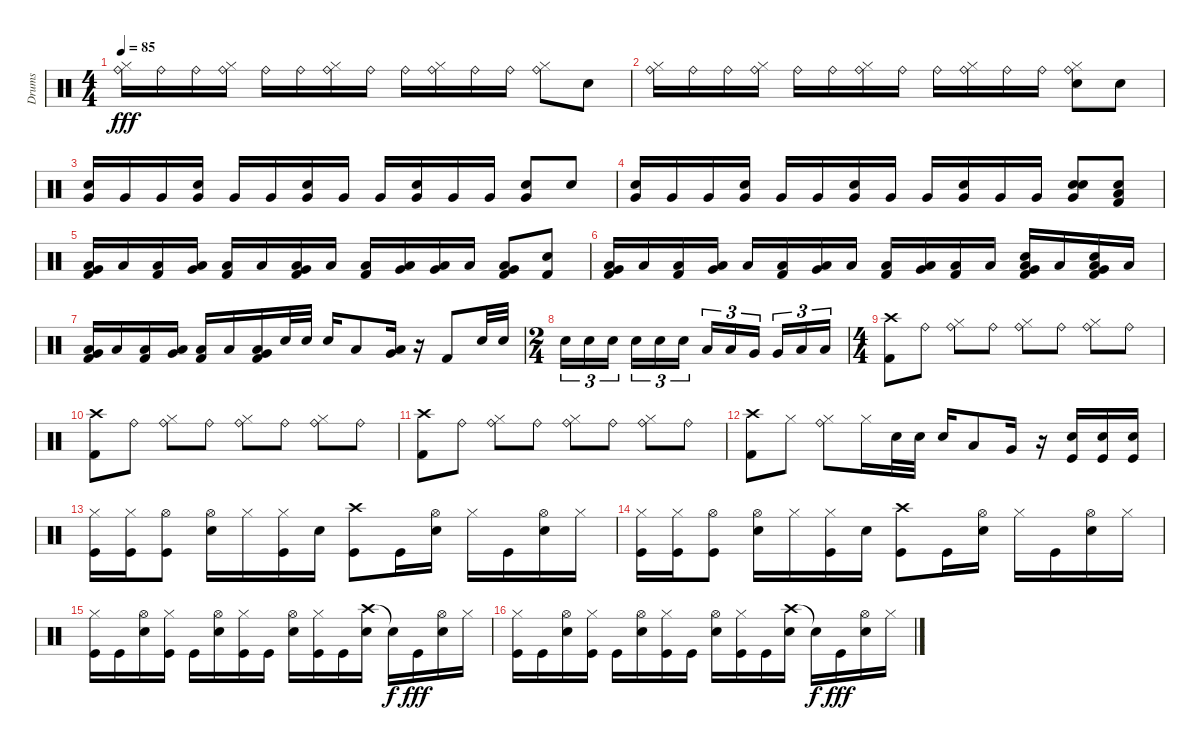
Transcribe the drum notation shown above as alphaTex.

\track ("Drums" "Drums") {instrument percussion}
\staff {score}
\articulation defaults
\ts (4 4)
\tempo 85
\clef neutral
\ks c
("Ride (bell)" "Hi-Hat (closed)").16{dy fff} "Ride (bell)".16 "Ride (bell)".16 ("Ride (bell)" "Hi-Hat (closed)").16 "Ride (bell)".16 "Ride (bell)".16 ("Ride (bell)" "Hi-Hat (closed)").16 "Ride (bell)".16 "Ride (bell)".16 ("Ride (bell)" "Hi-Hat (closed)").16 "Ride (bell)".16 "Ride (bell)".16 ("Ride (bell)" "Hi-Hat (closed)").8 "Hand Clap (hit)".8 |
("Ride (bell)" "Hi-Hat (closed)").16 "Ride (bell)".16 "Ride (bell)".16 ("Ride (bell)" "Hi-Hat (closed)").16 "Ride (bell)".16 "Ride (bell)".16 ("Ride (bell)" "Hi-Hat (closed)").16 "Ride (bell)".16 "Ride (bell)".16 ("Ride (bell)" "Hi-Hat (closed)").16 "Ride (bell)".16 "Ride (bell)".16 ("Ride (bell)" "Hi-Hat (closed)" "Hand Clap (hit)").8 "Hand Clap (hit)".8 |
("Very Low Tom (hit)" "Snare (hit) 2").16 "Very Low Tom (hit)".16 "Very Low Tom (hit)".16 ("Very Low Tom (hit)" "Snare (hit) 2").16 "Very Low Tom (hit)".16 "Very Low Tom (hit)".16 ("Very Low Tom (hit)" "Snare (hit) 2").16 "Very Low Tom (hit)".16 "Very Low Tom (hit)".16 ("Very Low Tom (hit)" "Snare (hit) 2").16 "Very Low Tom (hit)".16 "Very Low Tom (hit)".16 ("Very Low Tom (hit)" "Snare (hit) 2").8 "Hand Clap (hit)".8 |
("Very Low Tom (hit)" "Snare (hit) 2").16 "Very Low Tom (hit)".16 "Very Low Tom (hit)".16 ("Very Low Tom (hit)" "Snare (hit) 2").16 "Very Low Tom (hit)".16 "Very Low Tom (hit)".16 ("Very Low Tom (hit)" "Snare (hit) 2").16 "Very Low Tom (hit)".16 "Very Low Tom (hit)".16 ("Very Low Tom (hit)" "Snare (hit) 2").16 "Very Low Tom (hit)".16 "Very Low Tom (hit)".16 ("Hand Clap (hit)" "Very Low Tom (hit)" "Snare (hit) 2").8 ("Hand Clap (hit)" "Low Floor Tom (hit)" "Kick (hit) 2").8 |
("Very Low Tom (hit)" "Low Floor Tom (hit)" "Kick (hit) 2").16 "Low Floor Tom (hit)".16 ("Low Floor Tom (hit)" "Kick (hit) 2").16 ("Very Low Tom (hit)" "Low Floor Tom (hit)").16 ("Low Floor Tom (hit)" "Kick (hit) 2").16 "Low Floor Tom (hit)".16 ("Very Low Tom (hit)" "Low Floor Tom (hit)" "Kick (hit) 2").16 "Low Floor Tom (hit)".16 ("Low Floor Tom (hit)" "Kick (hit) 2").16 ("Very Low Tom (hit)" "Low Floor Tom (hit)").16 ("Very Low Tom (hit)" "Low Floor Tom (hit)").16 "Low Floor Tom (hit)".16 ("Very Low Tom (hit)" "Low Floor Tom (hit)" "Kick (hit) 2").8 ("Hand Clap (hit)" "Kick (hit) 2").8 |
("Very Low Tom (hit)" "Low Floor Tom (hit)" "Kick (hit) 2").16 "Low Floor Tom (hit)".16 ("Low Floor Tom (hit)" "Kick (hit) 2").16 ("Very Low Tom (hit)" "Low Floor Tom (hit)").16 "Low Floor Tom (hit)".16 ("Low Floor Tom (hit)" "Kick (hit) 2").16 ("Very Low Tom (hit)" "Low Floor Tom (hit)").16 "Low Floor Tom (hit)".16 ("Low Floor Tom (hit)" "Kick (hit) 2").16 ("Very Low Tom (hit)" "Low Floor Tom (hit)").16 ("Low Floor Tom (hit)" "Kick (hit) 2").16 "Low Floor Tom (hit)".16 ("Hand Clap (hit)" "Very Low Tom (hit)" "Low Floor Tom (hit)" "Kick (hit) 2").16 "Low Floor Tom (hit)".16 ("Hand Clap (hit)" "Very Low Tom (hit)" "Low Floor Tom (hit)" "Kick (hit) 2").16 "Low Floor Tom (hit)".16 |
("Very Low Tom (hit)" "Low Floor Tom (hit)" "Kick (hit) 2").16 "Low Floor Tom (hit)".16 ("Low Floor Tom (hit)" "Kick (hit) 2").16 ("Very Low Tom (hit)" "Low Floor Tom (hit)").16 ("Low Floor Tom (hit)" "Kick (hit) 2").16 "Low Floor Tom (hit)".16 ("Very Low Tom (hit)" "Low Floor Tom (hit)" "Kick (hit) 2").16 "Snare (hit) 2".32 "Snare (hit) 2".32 "Snare (hit) 2".16 "Low Tom (hit)".8 ("Very Low Tom (hit)" "Low Floor Tom (hit)").16 r.16 "Kick (hit) 2".8 "Snare (hit) 2".32 "Snare (hit) 2".32 |
\ts (2 4)
"Snare (hit) 2".16{tu (3 2)} "Snare (hit) 2".16{tu (3 2)} "Snare (hit) 2".16{tu (3 2)} "Snare (hit) 2".16{tu (3 2)} "Snare (hit) 2".16{tu (3 2)} "Snare (hit) 2".16{tu (3 2)} "Low Tom (hit)".16{tu (3 2)} "Low Tom (hit)".16{tu (3 2)} "Very Low Tom (hit)".16{tu (3 2)} "Very Low Tom (hit)".16{tu (3 2)} "Low Floor Tom (hit)".16{tu (3 2)} "Low Floor Tom (hit)".16{tu (3 2)} |
\ts (4 4)
("Crash high (hit)" "Kick (hit) 2").8 "Ride (bell)".8 ("Hi-Hat (closed)" "Ride (bell)").8 "Ride (bell)".8 ("Hi-Hat (closed)" "Ride (bell)").8 "Ride (bell)".8 ("Hi-Hat (closed)" "Ride (bell)").8 "Ride (bell)".8 |
("Crash high (hit)" "Kick (hit) 2").8 "Ride (bell)".8 ("Hi-Hat (closed)" "Ride (bell)").8 "Ride (bell)".8 ("Hi-Hat (closed)" "Ride (bell)").8 "Ride (bell)".8 ("Hi-Hat (closed)" "Ride (bell)").8 "Ride (bell)".8 |
("Crash high (hit)" "Kick (hit) 2").8 "Ride (bell)".8 ("Hi-Hat (closed)" "Ride (bell)").8 "Ride (bell)".8 ("Hi-Hat (closed)" "Ride (bell)").8 "Ride (bell)".8 ("Hi-Hat (closed)" "Ride (bell)").8 "Ride (bell)".8 |
("Crash high (hit)" "Kick (hit) 2").8 "Hi-Hat (closed)".8 ("Hi-Hat (closed)" "Ride (bell)").8 "Hi-Hat (closed)".16 "Snare (hit) 2".32 "Snare (hit) 2".32 "Snare (hit) 2".16 "Low Tom (hit)".8 "Very Low Tom (hit)".16 r.16 ("Snare (hit) 2" "Kick (hit)").16 ("Snare (hit) 2" "Kick (hit)").16 ("Snare (hit) 2" "Kick (hit)").16 |
("Hi-Hat (closed)" "Kick (hit)").16 ("Hi-Hat (closed)" "Kick (hit)").16 ("Hi-Hat (open)" "Kick (hit)").8 ("Hi-Hat (open)" "Snare (hit) 2").16 "Hi-Hat (closed)".16 ("Hi-Hat (closed)" "Kick (hit)").16 "Snare (hit) 2".16 ("Crash high (hit)" "Kick (hit)").8 "Kick (hit)".16 ("Hi-Hat (open)" "Snare (hit) 2").16 "Hi-Hat (closed)".16 "Kick (hit)".16 ("Hi-Hat (open)" "Snare (hit) 2").16 "Hi-Hat (closed)".16 |
("Hi-Hat (closed)" "Kick (hit)").16 ("Hi-Hat (closed)" "Kick (hit)").16 ("Hi-Hat (open)" "Kick (hit)").8 ("Hi-Hat (open)" "Snare (hit) 2").16 "Hi-Hat (closed)".16 ("Hi-Hat (closed)" "Kick (hit)").16 "Snare (hit) 2".16 ("Crash high (hit)" "Kick (hit)").8 "Kick (hit)".16 ("Hi-Hat (open)" "Snare (hit) 2").16 "Hi-Hat (closed)".16 "Kick (hit)".16 ("Hi-Hat (open)" "Snare (hit) 2").16 "Hi-Hat (closed)".16 |
("Hi-Hat (closed)" "Kick (hit)").16 "Kick (hit)".16 ("Hi-Hat (open)" "Snare (hit) 2").16 ("Hi-Hat (closed)" "Kick (hit)").16 "Kick (hit)".16 ("Hi-Hat (open)" "Snare (hit) 2").16 ("Hi-Hat (closed)" "Kick (hit)").16 "Kick (hit)".16 ("Hi-Hat (open)" "Snare (hit) 2").16 ("Hi-Hat (closed)" "Kick (hit)").16 "Kick (hit)".16 ("Crash high (hit)" "Snare (hit) 2").16 "Snare (hit)"{t}.16{dy f} "Kick (hit)".16{dy fff} ("Hi-Hat (open)" "Snare (hit) 2").16 "Hi-Hat (closed)".16 |
("Hi-Hat (closed)" "Kick (hit)").16 "Kick (hit)".16 ("Hi-Hat (open)" "Snare (hit) 2").16 ("Hi-Hat (closed)" "Kick (hit)").16 "Kick (hit)".16 ("Hi-Hat (open)" "Snare (hit) 2").16 ("Hi-Hat (closed)" "Kick (hit)").16 "Kick (hit)".16 ("Hi-Hat (open)" "Snare (hit) 2").16 ("Hi-Hat (closed)" "Kick (hit)").16 "Kick (hit)".16 ("Crash high (hit)" "Snare (hit) 2").16 "Snare (hit)"{t}.16{dy f} "Kick (hit)".16{dy fff} ("Hi-Hat (open)" "Snare (hit) 2").16 "Hi-Hat (closed)".16
